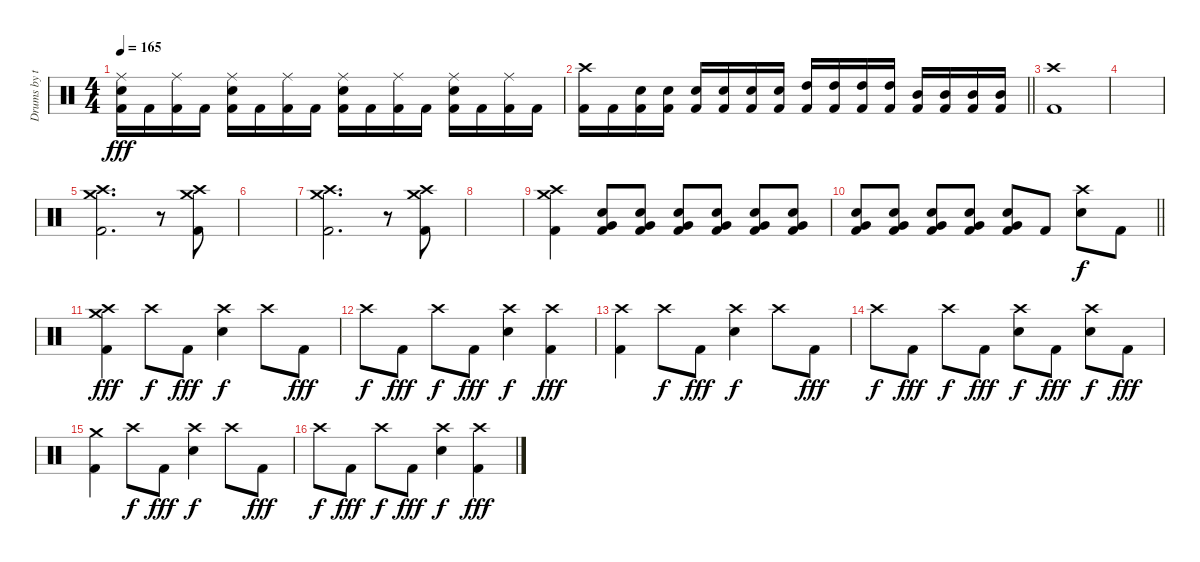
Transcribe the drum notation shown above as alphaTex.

\track ("Drums by terryn0" "Drums by t") {instrument percussion}
\staff {score}
\articulation defaults
\ts (4 4)
\tempo 165
\clef neutral
\ks c
("Ride (middle)" "Electric Snare (hit)" "Kick (hit) 2").16{dy fff} "Kick (hit) 2".16 ("Ride (middle)" "Kick (hit) 2").16 "Kick (hit) 2".16 ("Ride (middle)" "Electric Snare (hit)" "Kick (hit) 2").16 "Kick (hit) 2".16 ("Ride (middle)" "Kick (hit) 2").16 "Kick (hit) 2".16 ("Ride (middle)" "Electric Snare (hit)" "Kick (hit) 2").16 "Kick (hit) 2".16 ("Ride (middle)" "Kick (hit) 2").16 "Kick (hit) 2".16 ("Ride (middle)" "Electric Snare (hit)" "Kick (hit) 2").16 "Kick (hit) 2".16 ("Ride (middle)" "Kick (hit) 2").16 "Kick (hit) 2".16 |
\barLineRight lightlight
("Crash high (hit)" "Kick (hit) 2").16 "Kick (hit) 2".16 ("Electric Snare (hit)" "Kick (hit) 2").16 ("Electric Snare (hit)" "Kick (hit) 2").16 ("Electric Snare (hit)" "Kick (hit) 2").16 ("Electric Snare (hit)" "Kick (hit) 2").16 ("Electric Snare (hit)" "Kick (hit) 2").16 ("Electric Snare (hit)" "Kick (hit) 2").16 ("High Tom (hit)" "Kick (hit) 2").16 ("High Tom (hit)" "Kick (hit) 2").16 ("High Tom (hit)" "Kick (hit) 2").16 ("High Tom (hit)" "Kick (hit) 2").16 ("Mid Tom (hit)" "Kick (hit) 2").16 ("Mid Tom (hit)" "Kick (hit) 2").16 ("Mid Tom (hit)" "Kick (hit) 2").16 ("Mid Tom (hit)" "Kick (hit) 2").16 |
("Crash high (hit)" "Kick (hit) 2").1 |
|
("Crash medium (hit)" "Crash high (hit)" "Kick (hit) 2").2{d} r.8 ("Crash medium (hit)" "Crash high (hit)" "Kick (hit) 2").8 |
|
("Crash medium (hit)" "Crash high (hit)" "Kick (hit) 2").2{d} r.8 ("Crash medium (hit)" "Crash high (hit)" "Kick (hit) 2").8 |
|
("Crash medium (hit)" "Crash high (hit)" "Kick (hit) 2").4 ("Very Low Tom (hit)" "Electric Snare (hit)" "Kick (hit) 2").8 ("Very Low Tom (hit)" "Electric Snare (hit)" "Kick (hit) 2").8 ("Very Low Tom (hit)" "Electric Snare (hit)" "Kick (hit) 2").8 ("Very Low Tom (hit)" "Electric Snare (hit)" "Kick (hit) 2").8 ("Very Low Tom (hit)" "Electric Snare (hit)" "Kick (hit) 2").8 ("Very Low Tom (hit)" "Electric Snare (hit)" "Kick (hit) 2").8 |
\barLineRight lightlight
("Very Low Tom (hit)" "Electric Snare (hit)" "Kick (hit) 2").8 ("Very Low Tom (hit)" "Electric Snare (hit)" "Kick (hit) 2").8 ("Very Low Tom (hit)" "Electric Snare (hit)" "Kick (hit) 2").8 ("Very Low Tom (hit)" "Electric Snare (hit)" "Kick (hit) 2").8 ("Very Low Tom (hit)" "Electric Snare (hit)" "Kick (hit) 2").8 "Kick (hit) 2".8 ("Crash high (hit)" "Electric Snare (hit)").8{dy f} "Kick (hit) 2".8 |
("Crash high (hit)" "Crash medium (hit)" "Kick (hit) 2").4{dy fff} "Crash high (hit)".8{dy f} "Kick (hit) 2".8{dy fff} ("Crash high (hit)" "Electric Snare (hit)").4{dy f} "Crash high (hit)".8 "Kick (hit) 2".8{dy fff} |
"Crash high (hit)".8{dy f} "Kick (hit) 2".8{dy fff} "Crash high (hit)".8{dy f} "Kick (hit) 2".8{dy fff} ("Crash high (hit)" "Electric Snare (hit)").4{dy f} ("Crash high (hit)" "Kick (hit) 2").4{dy fff} |
("Crash high (hit)" "Kick (hit) 2").4 "Crash high (hit)".8{dy f} "Kick (hit) 2".8{dy fff} ("Crash high (hit)" "Electric Snare (hit)").4{dy f} "Crash high (hit)".8 "Kick (hit) 2".8{dy fff} |
"Crash high (hit)".8{dy f} "Kick (hit) 2".8{dy fff} "Crash high (hit)".8{dy f} "Kick (hit) 2".8{dy fff} ("Crash high (hit)" "Electric Snare (hit)").8{dy f} "Kick (hit) 2".8{dy fff} ("Crash high (hit)" "Electric Snare (hit)").8{dy f} "Kick (hit) 2".8{dy fff} |
("Crash medium (hit)" "Kick (hit) 2").4 "Crash high (hit)".8{dy f} "Kick (hit) 2".8{dy fff} ("Crash high (hit)" "Electric Snare (hit)").4{dy f} "Crash high (hit)".8 "Kick (hit) 2".8{dy fff} |
"Crash high (hit)".8{dy f} "Kick (hit) 2".8{dy fff} "Crash high (hit)".8{dy f} "Kick (hit) 2".8{dy fff} ("Crash high (hit)" "Electric Snare (hit)").4{dy f} ("Crash high (hit)" "Kick (hit) 2").4{dy fff}
